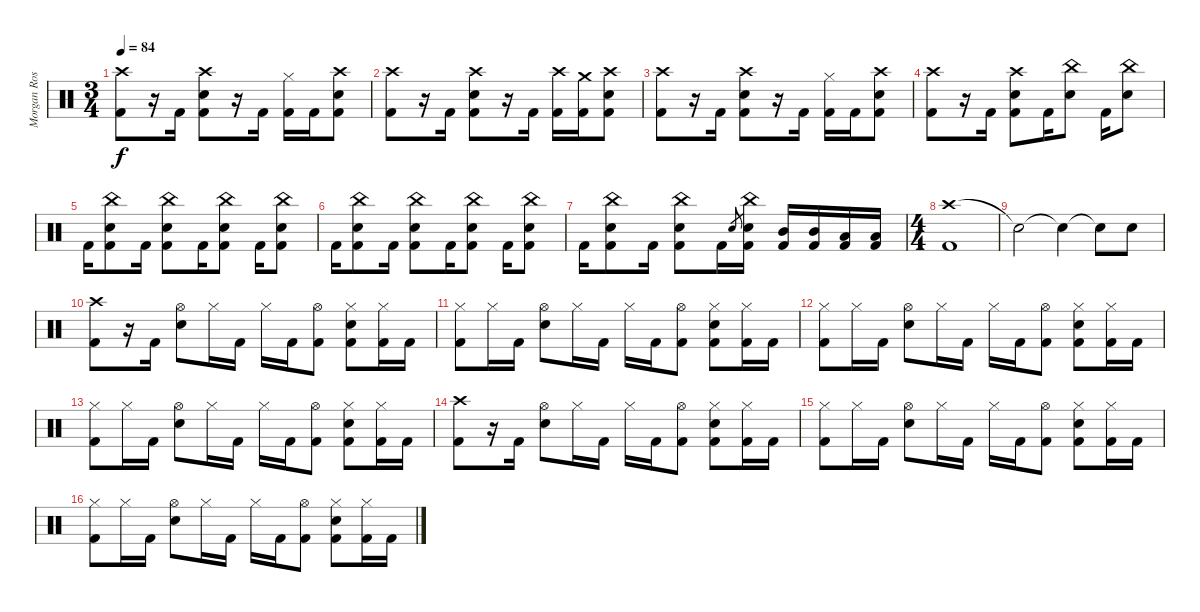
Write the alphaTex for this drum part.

\track ("Morgan Rose - Drums" "Morgan Ros") {instrument percussion}
\staff {score}
\articulation defaults
\ts (3 4)
\tempo 84
\clef neutral
\ks c
("Crash high (hit)" "Kick (hit) 2").8{dy f} r.16 "Kick (hit) 2".16 ("Crash high (hit)" "Electric Snare (hit)" "Kick (hit) 2").8 r.16 "Kick (hit) 2".16 ("Hi-Hat (closed)" "Kick (hit) 2").16 "Kick (hit) 2".16 ("Crash high (hit)" "Electric Snare (hit)" "Kick (hit) 2").8 |
("Crash high (hit)" "Kick (hit) 2").8 r.16 "Kick (hit) 2".16 ("Crash high (hit)" "Electric Snare (hit)" "Kick (hit) 2").8 r.16 "Kick (hit) 2".16 ("Crash high (hit)" "Kick (hit) 2").16 ("Crash medium (hit)" "Kick (hit) 2").16 ("Crash high (hit)" "Electric Snare (hit)" "Kick (hit) 2").8 |
("Crash high (hit)" "Kick (hit) 2").8 r.16 "Kick (hit) 2".16 ("Crash high (hit)" "Electric Snare (hit)" "Kick (hit) 2").8 r.16 "Kick (hit) 2".16 ("Hi-Hat (closed)" "Kick (hit) 2").16 "Kick (hit) 2".16 ("Crash high (hit)" "Electric Snare (hit)" "Kick (hit) 2").8 |
("Crash high (hit)" "Kick (hit) 2").8 r.16 "Kick (hit) 2".16 ("Crash high (hit)" "Electric Snare (hit)" "Kick (hit) 2").8 "Kick (hit) 2".16 ("China (hit)" "Electric Snare (hit)").8 "Kick (hit) 2".16 ("China (hit)" "Electric Snare (hit)").8 |
"Kick (hit) 2".16 ("China (hit)" "Electric Snare (hit)" "Kick (hit) 2").8 "Kick (hit) 2".16 ("China (hit)" "Electric Snare (hit)" "Kick (hit) 2").8 "Kick (hit) 2".16 ("China (hit)" "Electric Snare (hit)" "Kick (hit) 2").8 "Kick (hit) 2".16 ("China (hit)" "Electric Snare (hit)" "Kick (hit) 2").8 |
"Kick (hit) 2".16 ("China (hit)" "Electric Snare (hit)" "Kick (hit) 2").8 "Kick (hit) 2".16 ("China (hit)" "Electric Snare (hit)" "Kick (hit) 2").8 "Kick (hit) 2".16 ("China (hit)" "Electric Snare (hit)" "Kick (hit) 2").8 "Kick (hit) 2".16 ("China (hit)" "Electric Snare (hit)" "Kick (hit) 2").8 |
"Kick (hit) 2".16 ("China (hit)" "Electric Snare (hit)" "Kick (hit) 2").8 "Kick (hit) 2".16 ("China (hit)" "Electric Snare (hit)" "Kick (hit) 2").8 "Kick (hit) 2".16 "Electric Snare (hit)"{sl}.8{gr} ("China (hit)" "Electric Snare (hit)" "Kick (hit) 2").16 ("Mid Tom (hit)" "Kick (hit) 2").16 ("Mid Tom (hit)" "Kick (hit) 2").16 ("Low Tom (hit)" "Kick (hit) 2").16 ("Low Tom (hit)" "Kick (hit) 2").16 |
\ts (4 4)
("Crash high (hit)" "Kick (hit) 2").1 |
"Snare (hit)"{t}.2 "Snare (hit)"{t}.4 "Snare (hit)"{t}.8 "Electric Snare (hit)".8 |
("Crash high (hit)" "Kick (hit) 2").8 r.16 "Kick (hit) 2".16 ("Hi-Hat (open)" "Electric Snare (hit)").8 "Hi-Hat (closed)".16 "Kick (hit) 2".16 "Hi-Hat (closed)".16 "Kick (hit) 2".16 ("Hi-Hat (open)" "Kick (hit) 2").8 ("Hi-Hat (closed)" "Electric Snare (hit)" "Kick (hit) 2").8 ("Hi-Hat (closed)" "Kick (hit) 2").16 "Kick (hit) 2".16 |
("Hi-Hat (closed)" "Kick (hit) 2").8 "Hi-Hat (closed)".16 "Kick (hit) 2".16 ("Hi-Hat (open)" "Electric Snare (hit)").8 "Hi-Hat (closed)".16 "Kick (hit) 2".16 "Hi-Hat (closed)".16 "Kick (hit) 2".16 ("Hi-Hat (open)" "Kick (hit) 2").8 ("Hi-Hat (closed)" "Electric Snare (hit)" "Kick (hit) 2").8 ("Hi-Hat (closed)" "Kick (hit) 2").16 "Kick (hit) 2".16 |
("Hi-Hat (closed)" "Kick (hit) 2").8 "Hi-Hat (closed)".16 "Kick (hit) 2".16 ("Hi-Hat (open)" "Electric Snare (hit)").8 "Hi-Hat (closed)".16 "Kick (hit) 2".16 "Hi-Hat (closed)".16 "Kick (hit) 2".16 ("Hi-Hat (open)" "Kick (hit) 2").8 ("Hi-Hat (closed)" "Electric Snare (hit)" "Kick (hit) 2").8 ("Hi-Hat (closed)" "Kick (hit) 2").16 "Kick (hit) 2".16 |
("Hi-Hat (closed)" "Kick (hit) 2").8 "Hi-Hat (closed)".16 "Kick (hit) 2".16 ("Hi-Hat (open)" "Electric Snare (hit)").8 "Hi-Hat (closed)".16 "Kick (hit) 2".16 "Hi-Hat (closed)".16 "Kick (hit) 2".16 ("Hi-Hat (open)" "Kick (hit) 2").8 ("Hi-Hat (closed)" "Electric Snare (hit)" "Kick (hit) 2").8 ("Hi-Hat (closed)" "Kick (hit) 2").16 "Kick (hit) 2".16 |
("Crash high (hit)" "Kick (hit) 2").8 r.16 "Kick (hit) 2".16 ("Hi-Hat (open)" "Electric Snare (hit)").8 "Hi-Hat (closed)".16 "Kick (hit) 2".16 "Hi-Hat (closed)".16 "Kick (hit) 2".16 ("Hi-Hat (open)" "Kick (hit) 2").8 ("Hi-Hat (closed)" "Electric Snare (hit)" "Kick (hit) 2").8 ("Hi-Hat (closed)" "Kick (hit) 2").16 "Kick (hit) 2".16 |
("Hi-Hat (closed)" "Kick (hit) 2").8 "Hi-Hat (closed)".16 "Kick (hit) 2".16 ("Hi-Hat (open)" "Electric Snare (hit)").8 "Hi-Hat (closed)".16 "Kick (hit) 2".16 "Hi-Hat (closed)".16 "Kick (hit) 2".16 ("Hi-Hat (open)" "Kick (hit) 2").8 ("Hi-Hat (closed)" "Electric Snare (hit)" "Kick (hit) 2").8 ("Hi-Hat (closed)" "Kick (hit) 2").16 "Kick (hit) 2".16 |
("Hi-Hat (closed)" "Kick (hit) 2").8 "Hi-Hat (closed)".16 "Kick (hit) 2".16 ("Hi-Hat (open)" "Electric Snare (hit)").8 "Hi-Hat (closed)".16 "Kick (hit) 2".16 "Hi-Hat (closed)".16 "Kick (hit) 2".16 ("Hi-Hat (open)" "Kick (hit) 2").8 ("Hi-Hat (closed)" "Electric Snare (hit)" "Kick (hit) 2").8 ("Hi-Hat (closed)" "Kick (hit) 2").16 "Kick (hit) 2".16
